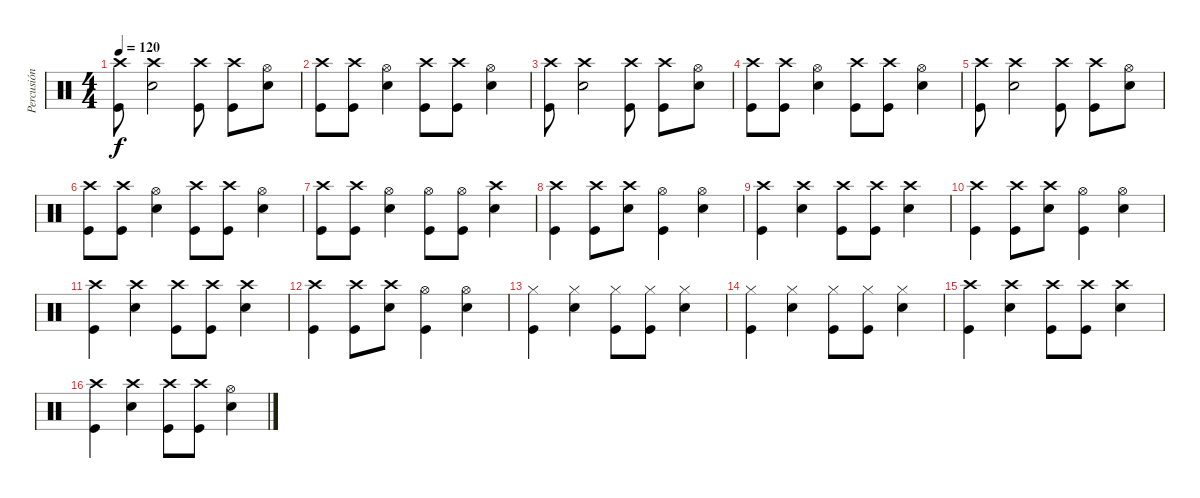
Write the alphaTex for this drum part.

\track ("Percusión" "Percusión") {instrument percussion}
\staff {score}
\articulation defaults
\ts (4 4)
\tempo 120
\clef neutral
\ks c
("Crash high (hit)" "Kick (hit)").8{dy f} ("Crash high (hit)" "Snare (hit) 2").2 ("Crash high (hit)" "Kick (hit)").8 ("Crash high (hit)" "Kick (hit)").8 ("Hi-Hat (open)" "Snare (hit) 2").8 |
("Crash high (hit)" "Kick (hit)").8 ("Crash high (hit)" "Kick (hit)").8 ("Hi-Hat (open)" "Snare (hit) 2").4 ("Crash high (hit)" "Kick (hit)").8 ("Crash high (hit)" "Kick (hit)").8 ("Hi-Hat (open)" "Snare (hit) 2").4 |
("Crash high (hit)" "Kick (hit)").8 ("Crash high (hit)" "Snare (hit) 2").2 ("Crash high (hit)" "Kick (hit)").8 ("Crash high (hit)" "Kick (hit)").8 ("Hi-Hat (open)" "Snare (hit) 2").8 |
("Crash high (hit)" "Kick (hit)").8 ("Crash high (hit)" "Kick (hit)").8 ("Hi-Hat (open)" "Snare (hit) 2").4 ("Crash high (hit)" "Kick (hit)").8 ("Crash high (hit)" "Kick (hit)").8 ("Hi-Hat (open)" "Snare (hit) 2").4 |
("Crash high (hit)" "Kick (hit)").8 ("Crash high (hit)" "Snare (hit) 2").2 ("Crash high (hit)" "Kick (hit)").8 ("Crash high (hit)" "Kick (hit)").8 ("Hi-Hat (open)" "Snare (hit) 2").8 |
("Crash high (hit)" "Kick (hit)").8 ("Crash high (hit)" "Kick (hit)").8 ("Hi-Hat (open)" "Snare (hit) 2").4 ("Crash high (hit)" "Kick (hit)").8 ("Crash high (hit)" "Kick (hit)").8 ("Hi-Hat (open)" "Snare (hit) 2").4 |
("Crash high (hit)" "Kick (hit)").8 ("Crash high (hit)" "Kick (hit)").8 ("Hi-Hat (open)" "Snare (hit) 2").4 ("Hi-Hat (open)" "Kick (hit)").8 ("Hi-Hat (open)" "Kick (hit)").8 ("Crash high (hit)" "Snare (hit) 2").4 |
("Crash high (hit)" "Kick (hit)").4 ("Crash high (hit)" "Kick (hit)").8 ("Crash high (hit)" "Snare (hit) 2").8 ("Hi-Hat (open)" "Kick (hit)").4 ("Hi-Hat (open)" "Snare (hit) 2").4 |
("Crash high (hit)" "Kick (hit)").4 ("Crash high (hit)" "Snare (hit) 2").4 ("Crash high (hit)" "Kick (hit)").8 ("Crash high (hit)" "Kick (hit)").8 ("Crash high (hit)" "Snare (hit) 2").4 |
("Crash high (hit)" "Kick (hit)").4 ("Crash high (hit)" "Kick (hit)").8 ("Crash high (hit)" "Snare (hit) 2").8 ("Hi-Hat (open)" "Kick (hit)").4 ("Hi-Hat (open)" "Snare (hit) 2").4 |
("Crash high (hit)" "Kick (hit)").4 ("Crash high (hit)" "Snare (hit) 2").4 ("Crash high (hit)" "Kick (hit)").8 ("Crash high (hit)" "Kick (hit)").8 ("Crash high (hit)" "Snare (hit) 2").4 |
("Crash high (hit)" "Kick (hit)").4 ("Crash high (hit)" "Kick (hit)").8 ("Crash high (hit)" "Snare (hit) 2").8 ("Hi-Hat (open)" "Kick (hit)").4 ("Hi-Hat (open)" "Snare (hit) 2").4 |
("Hi-Hat (closed)" "Kick (hit)").4 ("Hi-Hat (closed)" "Snare (hit) 2").4 ("Hi-Hat (closed)" "Kick (hit)").8 ("Hi-Hat (closed)" "Kick (hit)").8 ("Hi-Hat (closed)" "Snare (hit) 2").4 |
("Hi-Hat (closed)" "Kick (hit)").4 ("Hi-Hat (closed)" "Snare (hit) 2").4 ("Hi-Hat (closed)" "Kick (hit)").8 ("Hi-Hat (closed)" "Kick (hit)").8 ("Hi-Hat (closed)" "Snare (hit) 2").4 |
("Crash high (hit)" "Kick (hit)").4 ("Crash high (hit)" "Snare (hit) 2").4 ("Crash high (hit)" "Kick (hit)").8 ("Crash high (hit)" "Kick (hit)").8 ("Crash high (hit)" "Snare (hit) 2").4 |
("Crash high (hit)" "Kick (hit)").4 ("Crash high (hit)" "Snare (hit) 2").4 ("Crash high (hit)" "Kick (hit)").8 ("Crash high (hit)" "Kick (hit)").8 ("Hi-Hat (open)" "Snare (hit) 2").4
